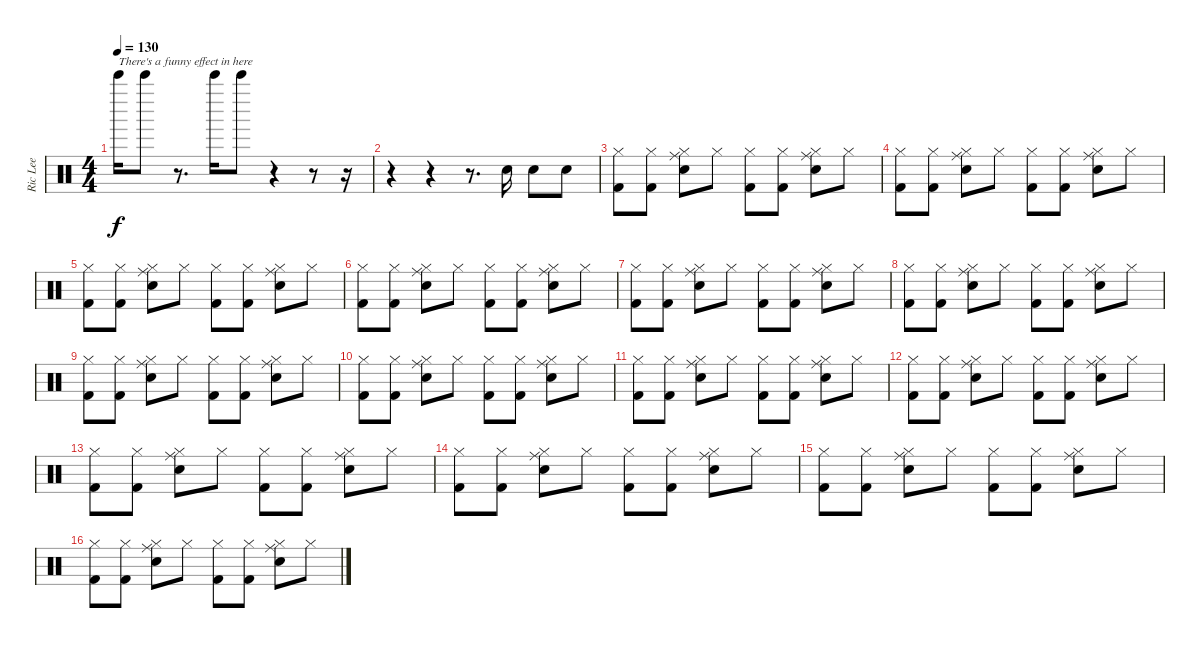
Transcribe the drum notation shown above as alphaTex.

\track ("Ric Lee" "Ric Lee") {instrument percussion}
\staff {score}
\articulation defaults
\ts (4 4)
\tempo 130
\clef neutral
\ks c "Bell Tree (hit)".16{txt "There's a funny effect in here" dy f} "Bell Tree (hit)".8
r.8{d} "Bell Tree (hit)".16 "Bell Tree (hit)".8 r.4 r.8 r.16 |
r.4 r.4 r.8{d} "Snare (hit) 2".16 "Snare (hit) 2".8 "Snare (hit) 2".8 |
("Kick (hit) 2" "Hi-Hat (closed)").8 ("Kick (hit) 2" "Hi-Hat (closed)").8 ("Snare (hit) 2" "Hi-Hat (closed)" "Ride (middle)").8 "Hi-Hat (closed)".8 ("Kick (hit) 2" "Hi-Hat (closed)").8 ("Kick (hit) 2" "Hi-Hat (closed)").8 ("Snare (hit) 2" "Hi-Hat (closed)" "Ride (middle)").8 "Hi-Hat (closed)".8 |
("Kick (hit) 2" "Hi-Hat (closed)").8 ("Kick (hit) 2" "Hi-Hat (closed)").8 ("Snare (hit) 2" "Hi-Hat (closed)" "Ride (middle)").8 "Hi-Hat (closed)".8 ("Kick (hit) 2" "Hi-Hat (closed)").8 ("Kick (hit) 2" "Hi-Hat (closed)").8 ("Snare (hit) 2" "Hi-Hat (closed)" "Ride (middle)").8 "Hi-Hat (closed)".8 |
("Kick (hit) 2" "Hi-Hat (closed)").8 ("Kick (hit) 2" "Hi-Hat (closed)").8 ("Snare (hit) 2" "Hi-Hat (closed)" "Ride (middle)").8 "Hi-Hat (closed)".8 ("Kick (hit) 2" "Hi-Hat (closed)").8 ("Kick (hit) 2" "Hi-Hat (closed)").8 ("Snare (hit) 2" "Hi-Hat (closed)" "Ride (middle)").8 "Hi-Hat (closed)".8 |
("Kick (hit) 2" "Hi-Hat (closed)").8 ("Kick (hit) 2" "Hi-Hat (closed)").8 ("Snare (hit) 2" "Hi-Hat (closed)" "Ride (middle)").8 "Hi-Hat (closed)".8 ("Kick (hit) 2" "Hi-Hat (closed)").8 ("Kick (hit) 2" "Hi-Hat (closed)").8 ("Snare (hit) 2" "Hi-Hat (closed)" "Ride (middle)").8 "Hi-Hat (closed)".8 |
("Kick (hit) 2" "Hi-Hat (closed)").8 ("Kick (hit) 2" "Hi-Hat (closed)").8 ("Snare (hit) 2" "Hi-Hat (closed)" "Ride (middle)").8 "Hi-Hat (closed)".8 ("Kick (hit) 2" "Hi-Hat (closed)").8 ("Kick (hit) 2" "Hi-Hat (closed)").8 ("Snare (hit) 2" "Hi-Hat (closed)" "Ride (middle)").8 "Hi-Hat (closed)".8 |
("Kick (hit) 2" "Hi-Hat (closed)").8 ("Kick (hit) 2" "Hi-Hat (closed)").8 ("Snare (hit) 2" "Hi-Hat (closed)" "Ride (middle)").8 "Hi-Hat (closed)".8 ("Kick (hit) 2" "Hi-Hat (closed)").8 ("Kick (hit) 2" "Hi-Hat (closed)").8 ("Snare (hit) 2" "Hi-Hat (closed)" "Ride (middle)").8 "Hi-Hat (closed)".8 |
("Kick (hit) 2" "Hi-Hat (closed)").8 ("Kick (hit) 2" "Hi-Hat (closed)").8 ("Snare (hit) 2" "Hi-Hat (closed)" "Ride (middle)").8 "Hi-Hat (closed)".8 ("Kick (hit) 2" "Hi-Hat (closed)").8 ("Kick (hit) 2" "Hi-Hat (closed)").8 ("Snare (hit) 2" "Hi-Hat (closed)" "Ride (middle)").8 "Hi-Hat (closed)".8 |
("Kick (hit) 2" "Hi-Hat (closed)").8 ("Kick (hit) 2" "Hi-Hat (closed)").8 ("Snare (hit) 2" "Hi-Hat (closed)" "Ride (middle)").8 "Hi-Hat (closed)".8 ("Kick (hit) 2" "Hi-Hat (closed)").8 ("Kick (hit) 2" "Hi-Hat (closed)").8 ("Snare (hit) 2" "Hi-Hat (closed)" "Ride (middle)").8 "Hi-Hat (closed)".8 |
("Kick (hit) 2" "Hi-Hat (closed)").8 ("Kick (hit) 2" "Hi-Hat (closed)").8 ("Snare (hit) 2" "Hi-Hat (closed)" "Ride (middle)").8 "Hi-Hat (closed)".8 ("Kick (hit) 2" "Hi-Hat (closed)").8 ("Kick (hit) 2" "Hi-Hat (closed)").8 ("Snare (hit) 2" "Hi-Hat (closed)" "Ride (middle)").8 "Hi-Hat (closed)".8 |
("Kick (hit) 2" "Hi-Hat (closed)").8 ("Kick (hit) 2" "Hi-Hat (closed)").8 ("Snare (hit) 2" "Hi-Hat (closed)" "Ride (middle)").8 "Hi-Hat (closed)".8 ("Kick (hit) 2" "Hi-Hat (closed)").8 ("Kick (hit) 2" "Hi-Hat (closed)").8 ("Snare (hit) 2" "Hi-Hat (closed)" "Ride (middle)").8 "Hi-Hat (closed)".8 |
("Kick (hit) 2" "Hi-Hat (closed)").8 ("Kick (hit) 2" "Hi-Hat (closed)").8 ("Snare (hit) 2" "Hi-Hat (closed)" "Ride (middle)").8 "Hi-Hat (closed)".8 ("Kick (hit) 2" "Hi-Hat (closed)").8 ("Kick (hit) 2" "Hi-Hat (closed)").8 ("Snare (hit) 2" "Hi-Hat (closed)" "Ride (middle)").8 "Hi-Hat (closed)".8 |
("Kick (hit) 2" "Hi-Hat (closed)").8 ("Kick (hit) 2" "Hi-Hat (closed)").8 ("Snare (hit) 2" "Hi-Hat (closed)" "Ride (middle)").8 "Hi-Hat (closed)".8 ("Kick (hit) 2" "Hi-Hat (closed)").8 ("Kick (hit) 2" "Hi-Hat (closed)").8 ("Snare (hit) 2" "Hi-Hat (closed)" "Ride (middle)").8 "Hi-Hat (closed)".8 |
("Kick (hit) 2" "Hi-Hat (closed)").8 ("Kick (hit) 2" "Hi-Hat (closed)").8 ("Snare (hit) 2" "Hi-Hat (closed)" "Ride (middle)").8 "Hi-Hat (closed)".8 ("Kick (hit) 2" "Hi-Hat (closed)").8 ("Kick (hit) 2" "Hi-Hat (closed)").8 ("Snare (hit) 2" "Hi-Hat (closed)" "Ride (middle)").8 "Hi-Hat (closed)".8 |
("Kick (hit) 2" "Hi-Hat (closed)").8 ("Kick (hit) 2" "Hi-Hat (closed)").8 ("Snare (hit) 2" "Hi-Hat (closed)" "Ride (middle)").8 "Hi-Hat (closed)".8 ("Kick (hit) 2" "Hi-Hat (closed)").8 ("Kick (hit) 2" "Hi-Hat (closed)").8 ("Snare (hit) 2" "Hi-Hat (closed)" "Ride (middle)").8 "Hi-Hat (closed)".8
